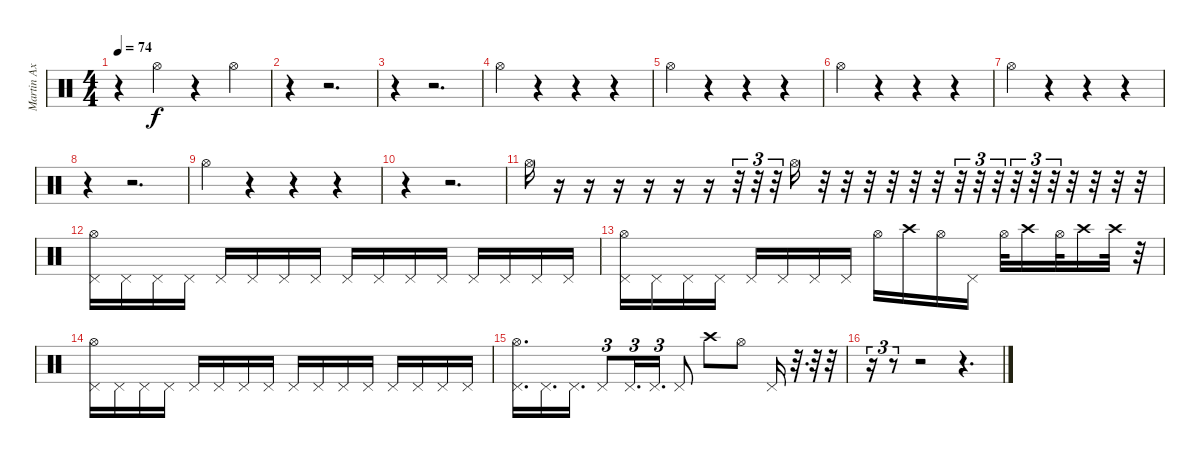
\track (" Martin Axenrot - Cymbals" " Martin Ax") {instrument percussion}
\staff {score}
\articulation defaults
\ts (4 4)
\tempo 74
\clef neutral
\ks c
r.4{dy f} "Hi-Hat (open)".4 r.4 "Hi-Hat (open)".4 |
r.4 r.2{d} |
r.4 r.2{d} |
"Hi-Hat (open)".4 r.4 r.4 r.4 |
"Hi-Hat (open)".4 r.4 r.4 r.4 |
"Hi-Hat (open)".4 r.4 r.4 r.4 |
"Hi-Hat (open)".4 r.4 r.4 r.4 |
r.4 r.2{d} |
"Hi-Hat (open)".4 r.4 r.4 r.4 |
r.4 r.2{d} |
"Hi-Hat (open)".16 r.16 r.16 r.16 r.16 r.16 r.16 r.32{tu (3 2)} r.32{tu (3 2)} r.32{tu (3 2)} "Hi-Hat (open)".16 r.32 r.32 r.32 r.32 r.32 r.32 r.32{tu (3 2)} r.32{tu (3 2)} r.32{tu (3 2)} r.32{tu (3 2)} r.32{tu (3 2)} r.32{tu (3 2)} r.32 r.32 r.32 r.32 |
("Hi-Hat (open)" "Pedal Hi-Hat (hit)").16 "Pedal Hi-Hat (hit)".16 "Pedal Hi-Hat (hit)".16 "Pedal Hi-Hat (hit)".16 "Pedal Hi-Hat (hit)".16 "Pedal Hi-Hat (hit)".16 "Pedal Hi-Hat (hit)".16 "Pedal Hi-Hat (hit)".16 "Pedal Hi-Hat (hit)".16 "Pedal Hi-Hat (hit)".16 "Pedal Hi-Hat (hit)".16 "Pedal Hi-Hat (hit)".16 "Pedal Hi-Hat (hit)".16 "Pedal Hi-Hat (hit)".16 "Pedal Hi-Hat (hit)".16 "Pedal Hi-Hat (hit)".16 |
("Hi-Hat (open)" "Pedal Hi-Hat (hit)").16 "Pedal Hi-Hat (hit)".16 "Pedal Hi-Hat (hit)".16 "Pedal Hi-Hat (hit)".16 "Pedal Hi-Hat (hit)".16 "Pedal Hi-Hat (hit)".16 "Pedal Hi-Hat (hit)".16 "Pedal Hi-Hat (hit)".16 "Hi-Hat (open)".16 "Crash high (hit)".16 "Hi-Hat (open)".16 "Pedal Hi-Hat (hit)".16 "Hi-Hat (open)".32 "Crash high (hit)".16 "Hi-Hat (open)".32 "Crash high (hit)".16 "Crash high (hit)".32 r.32 |
("Hi-Hat (open)" "Pedal Hi-Hat (hit)").16 "Pedal Hi-Hat (hit)".16 "Pedal Hi-Hat (hit)".16 "Pedal Hi-Hat (hit)".16 "Pedal Hi-Hat (hit)".16 "Pedal Hi-Hat (hit)".16 "Pedal Hi-Hat (hit)".16 "Pedal Hi-Hat (hit)".16 "Pedal Hi-Hat (hit)".16 "Pedal Hi-Hat (hit)".16 "Pedal Hi-Hat (hit)".16 "Pedal Hi-Hat (hit)".16 "Pedal Hi-Hat (hit)".16 "Pedal Hi-Hat (hit)".16 "Pedal Hi-Hat (hit)".16 "Pedal Hi-Hat (hit)".16 |
("Hi-Hat (open)" "Pedal Hi-Hat (hit)").16{d} "Pedal Hi-Hat (hit)".16{d} "Pedal Hi-Hat (hit)".16{d} "Pedal Hi-Hat (hit)".8{tu (3 2)} "Pedal Hi-Hat (hit)".16{d tu (3 2)} "Pedal Hi-Hat (hit)".16{d tu (3 2)} "Pedal Hi-Hat (hit)".8 "Crash high (hit)".8 "Hi-Hat (open)".8 "Pedal Hi-Hat (hit)".16 r.32{d tu (3 2)} r.32{tu (3 2)} r.32{tu (3 2)} |
r.16{tu (3 2)} r.8{tu (3 2)} r.2 r.4{d}
